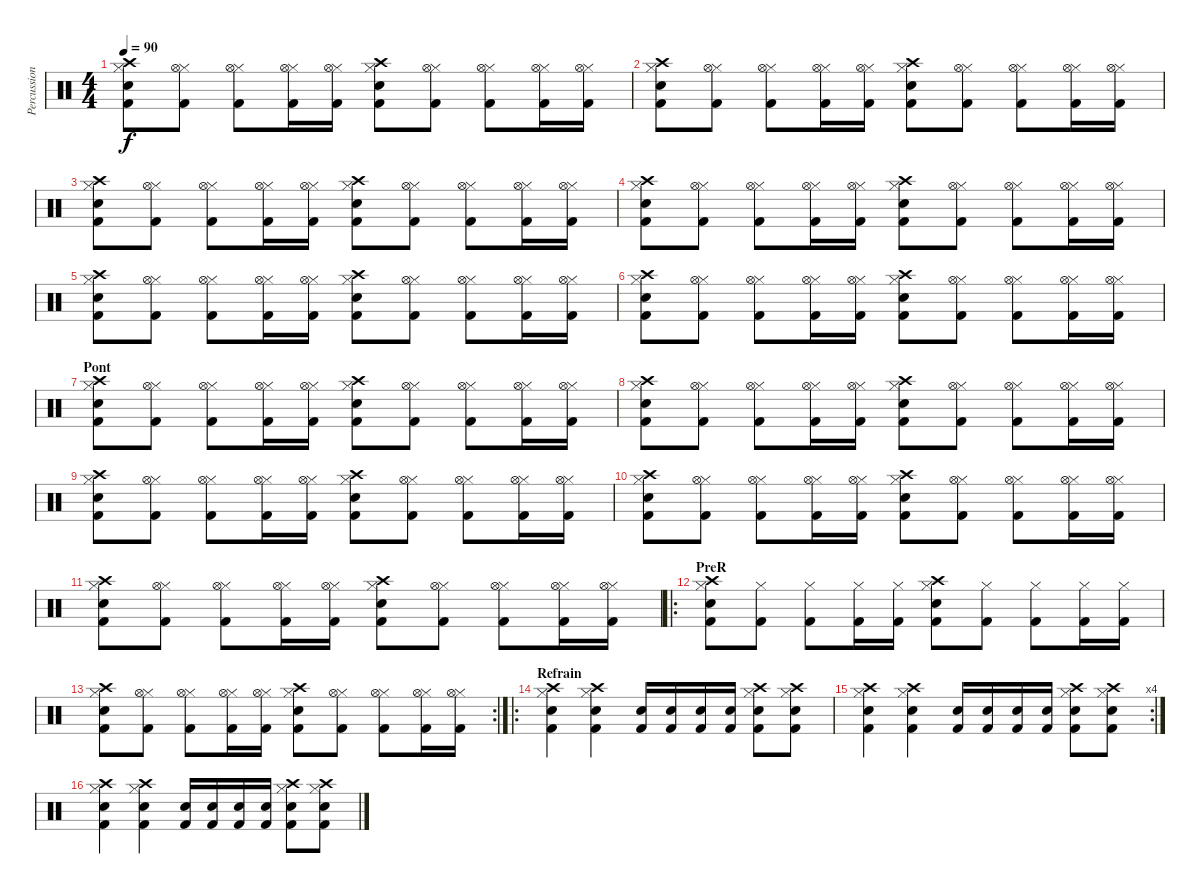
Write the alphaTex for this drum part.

\track ("Percussions" "Percussion") {instrument percussion}
\staff {score}
\articulation defaults
\ts (4 4)
\tempo 90
\clef neutral
\ks c
("Kick (hit) 2" "Hi-Hat (closed)" "Snare (hit) 2" "Crash high (hit)").8{dy f} ("Kick (hit) 2" "Hi-Hat (closed)" "Hi-Hat (open)").8 ("Kick (hit) 2" "Hi-Hat (closed)" "Hi-Hat (open)").8 ("Kick (hit) 2" "Hi-Hat (closed)" "Hi-Hat (open)").16 ("Kick (hit) 2" "Hi-Hat (closed)" "Hi-Hat (open)").16 ("Kick (hit) 2" "Hi-Hat (closed)" "Snare (hit) 2" "Crash high (hit)").8 ("Kick (hit) 2" "Hi-Hat (closed)" "Hi-Hat (open)").8 ("Kick (hit) 2" "Hi-Hat (closed)" "Hi-Hat (open)").8 ("Hi-Hat (closed)" "Kick (hit) 2" "Hi-Hat (open)").16 ("Hi-Hat (closed)" "Kick (hit) 2" "Hi-Hat (open)").16 |
("Kick (hit) 2" "Hi-Hat (closed)" "Snare (hit) 2" "Crash high (hit)").8 ("Kick (hit) 2" "Hi-Hat (closed)" "Hi-Hat (open)").8 ("Kick (hit) 2" "Hi-Hat (closed)" "Hi-Hat (open)").8 ("Kick (hit) 2" "Hi-Hat (closed)" "Hi-Hat (open)").16 ("Kick (hit) 2" "Hi-Hat (closed)" "Hi-Hat (open)").16 ("Kick (hit) 2" "Hi-Hat (closed)" "Snare (hit) 2" "Crash high (hit)").8 ("Kick (hit) 2" "Hi-Hat (closed)" "Hi-Hat (open)").8 ("Kick (hit) 2" "Hi-Hat (closed)" "Hi-Hat (open)").8 ("Hi-Hat (closed)" "Kick (hit) 2" "Hi-Hat (open)").16 ("Hi-Hat (closed)" "Kick (hit) 2" "Hi-Hat (open)").16 |
("Kick (hit) 2" "Hi-Hat (closed)" "Snare (hit) 2" "Crash high (hit)").8 ("Kick (hit) 2" "Hi-Hat (closed)" "Hi-Hat (open)").8 ("Kick (hit) 2" "Hi-Hat (closed)" "Hi-Hat (open)").8 ("Kick (hit) 2" "Hi-Hat (closed)" "Hi-Hat (open)").16 ("Kick (hit) 2" "Hi-Hat (closed)" "Hi-Hat (open)").16 ("Kick (hit) 2" "Hi-Hat (closed)" "Snare (hit) 2" "Crash high (hit)").8 ("Kick (hit) 2" "Hi-Hat (closed)" "Hi-Hat (open)").8 ("Kick (hit) 2" "Hi-Hat (closed)" "Hi-Hat (open)").8 ("Hi-Hat (closed)" "Kick (hit) 2" "Hi-Hat (open)").16 ("Hi-Hat (closed)" "Kick (hit) 2" "Hi-Hat (open)").16 |
("Kick (hit) 2" "Hi-Hat (closed)" "Snare (hit) 2" "Crash high (hit)").8 ("Kick (hit) 2" "Hi-Hat (closed)" "Hi-Hat (open)").8 ("Kick (hit) 2" "Hi-Hat (closed)" "Hi-Hat (open)").8 ("Kick (hit) 2" "Hi-Hat (closed)" "Hi-Hat (open)").16 ("Kick (hit) 2" "Hi-Hat (closed)" "Hi-Hat (open)").16 ("Kick (hit) 2" "Hi-Hat (closed)" "Snare (hit) 2" "Crash high (hit)").8 ("Kick (hit) 2" "Hi-Hat (closed)" "Hi-Hat (open)").8 ("Kick (hit) 2" "Hi-Hat (closed)" "Hi-Hat (open)").8 ("Hi-Hat (closed)" "Kick (hit) 2" "Hi-Hat (open)").16 ("Hi-Hat (closed)" "Kick (hit) 2" "Hi-Hat (open)").16 |
("Kick (hit) 2" "Hi-Hat (closed)" "Snare (hit) 2" "Crash high (hit)").8 ("Kick (hit) 2" "Hi-Hat (closed)" "Hi-Hat (open)").8 ("Kick (hit) 2" "Hi-Hat (closed)" "Hi-Hat (open)").8 ("Kick (hit) 2" "Hi-Hat (closed)" "Hi-Hat (open)").16 ("Kick (hit) 2" "Hi-Hat (closed)" "Hi-Hat (open)").16 ("Kick (hit) 2" "Hi-Hat (closed)" "Snare (hit) 2" "Crash high (hit)").8 ("Kick (hit) 2" "Hi-Hat (closed)" "Hi-Hat (open)").8 ("Kick (hit) 2" "Hi-Hat (closed)" "Hi-Hat (open)").8 ("Hi-Hat (closed)" "Kick (hit) 2" "Hi-Hat (open)").16 ("Hi-Hat (closed)" "Kick (hit) 2" "Hi-Hat (open)").16 |
("Kick (hit) 2" "Hi-Hat (closed)" "Snare (hit) 2" "Crash high (hit)").8 ("Kick (hit) 2" "Hi-Hat (closed)" "Hi-Hat (open)").8 ("Kick (hit) 2" "Hi-Hat (closed)" "Hi-Hat (open)").8 ("Kick (hit) 2" "Hi-Hat (closed)" "Hi-Hat (open)").16 ("Kick (hit) 2" "Hi-Hat (closed)" "Hi-Hat (open)").16 ("Kick (hit) 2" "Hi-Hat (closed)" "Snare (hit) 2" "Crash high (hit)").8 ("Kick (hit) 2" "Hi-Hat (closed)" "Hi-Hat (open)").8 ("Kick (hit) 2" "Hi-Hat (closed)" "Hi-Hat (open)").8 ("Hi-Hat (closed)" "Kick (hit) 2" "Hi-Hat (open)").16 ("Hi-Hat (closed)" "Kick (hit) 2" "Hi-Hat (open)").16 |
\section ("" "Pont")
("Kick (hit) 2" "Hi-Hat (closed)" "Snare (hit) 2" "Crash high (hit)").8 ("Kick (hit) 2" "Hi-Hat (closed)" "Hi-Hat (open)").8 ("Kick (hit) 2" "Hi-Hat (closed)" "Hi-Hat (open)").8 ("Kick (hit) 2" "Hi-Hat (closed)" "Hi-Hat (open)").16 ("Kick (hit) 2" "Hi-Hat (closed)" "Hi-Hat (open)").16 ("Kick (hit) 2" "Hi-Hat (closed)" "Snare (hit) 2" "Crash high (hit)").8 ("Kick (hit) 2" "Hi-Hat (closed)" "Hi-Hat (open)").8 ("Kick (hit) 2" "Hi-Hat (closed)" "Hi-Hat (open)").8 ("Hi-Hat (closed)" "Kick (hit) 2" "Hi-Hat (open)").16 ("Hi-Hat (closed)" "Kick (hit) 2" "Hi-Hat (open)").16 |
("Kick (hit) 2" "Hi-Hat (closed)" "Snare (hit) 2" "Crash high (hit)").8 ("Kick (hit) 2" "Hi-Hat (closed)" "Hi-Hat (open)").8 ("Kick (hit) 2" "Hi-Hat (closed)" "Hi-Hat (open)").8 ("Kick (hit) 2" "Hi-Hat (closed)" "Hi-Hat (open)").16 ("Kick (hit) 2" "Hi-Hat (closed)" "Hi-Hat (open)").16 ("Kick (hit) 2" "Hi-Hat (closed)" "Snare (hit) 2" "Crash high (hit)").8 ("Kick (hit) 2" "Hi-Hat (closed)" "Hi-Hat (open)").8 ("Kick (hit) 2" "Hi-Hat (closed)" "Hi-Hat (open)").8 ("Hi-Hat (closed)" "Kick (hit) 2" "Hi-Hat (open)").16 ("Hi-Hat (closed)" "Kick (hit) 2" "Hi-Hat (open)").16 |
("Kick (hit) 2" "Hi-Hat (closed)" "Snare (hit) 2" "Crash high (hit)").8 ("Kick (hit) 2" "Hi-Hat (closed)" "Hi-Hat (open)").8 ("Kick (hit) 2" "Hi-Hat (closed)" "Hi-Hat (open)").8 ("Kick (hit) 2" "Hi-Hat (closed)" "Hi-Hat (open)").16 ("Kick (hit) 2" "Hi-Hat (closed)" "Hi-Hat (open)").16 ("Kick (hit) 2" "Hi-Hat (closed)" "Snare (hit) 2" "Crash high (hit)").8 ("Kick (hit) 2" "Hi-Hat (closed)" "Hi-Hat (open)").8 ("Kick (hit) 2" "Hi-Hat (closed)" "Hi-Hat (open)").8 ("Hi-Hat (closed)" "Kick (hit) 2" "Hi-Hat (open)").16 ("Hi-Hat (closed)" "Kick (hit) 2" "Hi-Hat (open)").16 |
("Kick (hit) 2" "Hi-Hat (closed)" "Snare (hit) 2" "Crash high (hit)").8 ("Kick (hit) 2" "Hi-Hat (closed)" "Hi-Hat (open)").8 ("Kick (hit) 2" "Hi-Hat (closed)" "Hi-Hat (open)").8 ("Kick (hit) 2" "Hi-Hat (closed)" "Hi-Hat (open)").16 ("Kick (hit) 2" "Hi-Hat (closed)" "Hi-Hat (open)").16 ("Kick (hit) 2" "Hi-Hat (closed)" "Snare (hit) 2" "Crash high (hit)").8 ("Kick (hit) 2" "Hi-Hat (closed)" "Hi-Hat (open)").8 ("Kick (hit) 2" "Hi-Hat (closed)" "Hi-Hat (open)").8 ("Hi-Hat (closed)" "Kick (hit) 2" "Hi-Hat (open)").16 ("Hi-Hat (closed)" "Kick (hit) 2" "Hi-Hat (open)").16 |
("Kick (hit) 2" "Hi-Hat (closed)" "Snare (hit) 2" "Crash high (hit)").8 ("Kick (hit) 2" "Hi-Hat (closed)" "Hi-Hat (open)").8 ("Kick (hit) 2" "Hi-Hat (closed)" "Hi-Hat (open)").8 ("Kick (hit) 2" "Hi-Hat (closed)" "Hi-Hat (open)").16 ("Kick (hit) 2" "Hi-Hat (closed)" "Hi-Hat (open)").16 ("Kick (hit) 2" "Hi-Hat (closed)" "Snare (hit) 2" "Crash high (hit)").8 ("Kick (hit) 2" "Hi-Hat (closed)" "Hi-Hat (open)").8 ("Kick (hit) 2" "Hi-Hat (closed)" "Hi-Hat (open)").8 ("Hi-Hat (closed)" "Kick (hit) 2" "Hi-Hat (open)").16 ("Hi-Hat (closed)" "Kick (hit) 2" "Hi-Hat (open)").16 |
\ro
\section ("" "PreR")
("Kick (hit) 2" "Hi-Hat (closed)" "Snare (hit) 2" "Crash high (hit)").8 ("Kick (hit) 2" "Hi-Hat (closed)").8 ("Kick (hit) 2" "Hi-Hat (closed)").8 ("Kick (hit) 2" "Hi-Hat (closed)").16 ("Kick (hit) 2" "Hi-Hat (closed)").16 ("Kick (hit) 2" "Hi-Hat (closed)" "Snare (hit) 2" "Crash high (hit)").8 ("Kick (hit) 2" "Hi-Hat (closed)").8 ("Kick (hit) 2" "Hi-Hat (closed)").8 ("Hi-Hat (closed)" "Kick (hit) 2").16 ("Hi-Hat (closed)" "Kick (hit) 2").16 |
\rc 2
("Kick (hit) 2" "Hi-Hat (closed)" "Snare (hit) 2" "Crash high (hit)").8 ("Kick (hit) 2" "Hi-Hat (closed)" "Hi-Hat (open)").8 ("Kick (hit) 2" "Hi-Hat (closed)" "Hi-Hat (open)").8 ("Kick (hit) 2" "Hi-Hat (closed)" "Hi-Hat (open)").16 ("Kick (hit) 2" "Hi-Hat (closed)" "Hi-Hat (open)").16 ("Kick (hit) 2" "Hi-Hat (closed)" "Snare (hit) 2" "Crash high (hit)").8 ("Kick (hit) 2" "Hi-Hat (closed)" "Hi-Hat (open)").8 ("Kick (hit) 2" "Hi-Hat (closed)" "Hi-Hat (open)").8 ("Hi-Hat (closed)" "Kick (hit) 2" "Hi-Hat (open)").16 ("Hi-Hat (closed)" "Kick (hit) 2" "Hi-Hat (open)").16 |
\ro
\section ("" "Refrain")
("Kick (hit) 2" "Hi-Hat (closed)" "Snare (hit) 2" "Crash high (hit)").4 ("Kick (hit) 2" "Hi-Hat (closed)" "Snare (hit) 2" "Crash high (hit)").4 ("Kick (hit) 2" "Snare (hit) 2").16 ("Kick (hit) 2" "Snare (hit) 2").16 ("Kick (hit) 2" "Snare (hit) 2").16 ("Kick (hit) 2" "Snare (hit) 2").16 ("Kick (hit) 2" "Hi-Hat (closed)" "Snare (hit) 2" "Crash high (hit)").8 ("Kick (hit) 2" "Hi-Hat (closed)" "Snare (hit) 2" "Crash high (hit)").8 |
\rc 4
("Kick (hit) 2" "Hi-Hat (closed)" "Snare (hit) 2" "Crash high (hit)").4 ("Kick (hit) 2" "Hi-Hat (closed)" "Snare (hit) 2" "Crash high (hit)").4 ("Kick (hit) 2" "Snare (hit) 2").16 ("Kick (hit) 2" "Snare (hit) 2").16 ("Kick (hit) 2" "Snare (hit) 2").16 ("Kick (hit) 2" "Snare (hit) 2").16 ("Kick (hit) 2" "Hi-Hat (closed)" "Snare (hit) 2" "Crash high (hit)").8 ("Kick (hit) 2" "Hi-Hat (closed)" "Snare (hit) 2" "Crash high (hit)").8 |
("Kick (hit) 2" "Hi-Hat (closed)" "Snare (hit) 2" "Crash high (hit)").4 ("Kick (hit) 2" "Hi-Hat (closed)" "Snare (hit) 2" "Crash high (hit)").4 ("Kick (hit) 2" "Snare (hit) 2").16 ("Kick (hit) 2" "Snare (hit) 2").16 ("Kick (hit) 2" "Snare (hit) 2").16 ("Kick (hit) 2" "Snare (hit) 2").16 ("Kick (hit) 2" "Hi-Hat (closed)" "Snare (hit) 2" "Crash high (hit)").8 ("Kick (hit) 2" "Hi-Hat (closed)" "Snare (hit) 2" "Crash high (hit)").8
